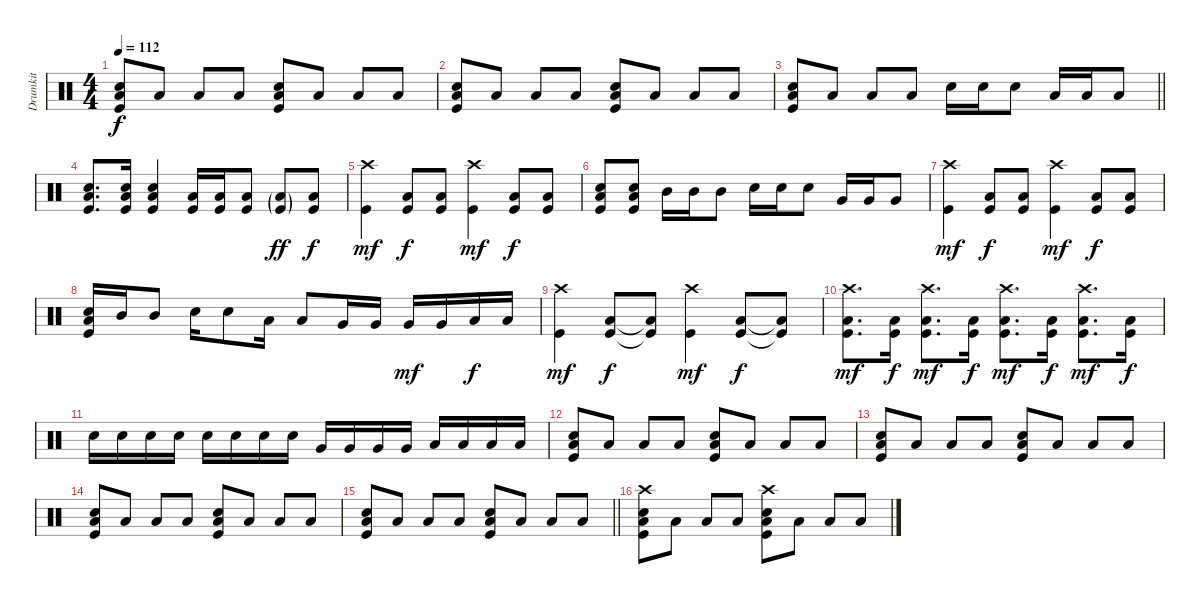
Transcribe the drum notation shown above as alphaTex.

\track ("Drumkit" "Drumkit") {instrument percussion}
\staff {score}
\articulation defaults
\ts (4 4)
\tempo 112
\clef neutral
\ks c
("Snare (hit) 2" "Low Floor Tom (hit)" "Kick (hit)").8{dy f} "Low Floor Tom (hit)".8 "Low Floor Tom (hit)".8 "Low Floor Tom (hit)".8 ("Snare (hit) 2" "Low Floor Tom (hit)" "Kick (hit)").8 "Low Floor Tom (hit)".8 "Low Floor Tom (hit)".8 "Low Floor Tom (hit)".8 |
("Snare (hit) 2" "Low Floor Tom (hit)" "Kick (hit)").8 "Low Floor Tom (hit)".8 "Low Floor Tom (hit)".8 "Low Floor Tom (hit)".8 ("Snare (hit) 2" "Low Floor Tom (hit)" "Kick (hit)").8 "Low Floor Tom (hit)".8 "Low Floor Tom (hit)".8 "Low Floor Tom (hit)".8 |
\barLineRight lightlight
("Snare (hit) 2" "Low Floor Tom (hit)" "Kick (hit)").8 "Low Floor Tom (hit)".8 "Low Floor Tom (hit)".8 "Low Floor Tom (hit)".8 "Snare (hit) 2".16 "Snare (hit) 2".16 "Snare (hit) 2".8 "Low Tom (hit)".16 "Low Tom (hit)".16 "Low Tom (hit)".8 |
("Snare (hit) 2" "Low Floor Tom (hit)" "Kick (hit)").8{d} ("Snare (hit) 2" "Low Floor Tom (hit)" "Kick (hit)").16 ("Snare (hit) 2" "Low Floor Tom (hit)" "Kick (hit)").4 ("Low Floor Tom (hit)" "Kick (hit)").16 ("Low Floor Tom (hit)" "Kick (hit)").16 ("Low Floor Tom (hit)" "Kick (hit)").8 ("Low Floor Tom (hit)"{g} "Kick (hit)"{g}).8{dy ff} ("Low Floor Tom (hit)" "Kick (hit)").8{dy f} |
("Crash high (hit)" "Kick (hit)").4{dy mf} ("Low Floor Tom (hit)" "Kick (hit)").8{dy f} ("Low Floor Tom (hit)" "Kick (hit)").8 ("Crash high (hit)" "Kick (hit)").4{dy mf} ("Low Floor Tom (hit)" "Kick (hit)").8{dy f} ("Low Floor Tom (hit)" "Kick (hit)").8 |
("Low Floor Tom (hit)" "Snare (hit) 2" "Kick (hit)").8 ("Low Floor Tom (hit)" "Snare (hit) 2" "Kick (hit)").8 "Mid Tom (hit)".16 "Mid Tom (hit)".16 "Mid Tom (hit)".8 "Snare (hit) 2".16 "Snare (hit) 2".16 "Snare (hit) 2".8 "Very Low Tom (hit)".16 "Very Low Tom (hit)".16 "Very Low Tom (hit)".8 |
("Crash high (hit)" "Kick (hit)").4{dy mf} ("Low Floor Tom (hit)" "Kick (hit)").8{dy f} ("Low Floor Tom (hit)" "Kick (hit)").8 ("Crash high (hit)" "Kick (hit)").4{dy mf} ("Low Floor Tom (hit)" "Kick (hit)").8{dy f} ("Low Floor Tom (hit)" "Kick (hit)").8 |
("Snare (hit) 2" "Low Floor Tom (hit)" "Kick (hit)").16 "Mid Tom (hit)".16 "Mid Tom (hit)".8 "Snare (hit) 2".16 "Snare (hit) 2".8 "Low Tom (hit)".16 "Low Tom (hit)".8 "Very Low Tom (hit)".16 "Very Low Tom (hit)".16 "Very Low Tom (hit)".16{dy mf} "Very Low Tom (hit)".16 "Low Floor Tom (hit)".16{dy f} "Low Floor Tom (hit)".16 |
("Crash high (hit)" "Kick (hit)").4{dy mf} ("Low Floor Tom (hit)" "Kick (hit)").8{dy f} ("Low Floor Tom (hit)"{t} "Kick (hit)"{t}).8 ("Crash high (hit)" "Kick (hit)").4{dy mf} ("Low Floor Tom (hit)" "Kick (hit)").8{dy f} ("Low Floor Tom (hit)"{t} "Kick (hit)"{t}).8 |
("Crash high (hit)" "Low Floor Tom (hit)" "Kick (hit)").8{d dy mf} ("Low Floor Tom (hit)" "Kick (hit)").16{dy f} ("Crash high (hit)" "Low Floor Tom (hit)" "Kick (hit)").8{d dy mf} ("Low Floor Tom (hit)" "Kick (hit)").16{dy f} ("Crash high (hit)" "Low Floor Tom (hit)" "Kick (hit)").8{d dy mf} ("Low Floor Tom (hit)" "Kick (hit)").16{dy f} ("Crash high (hit)" "Low Floor Tom (hit)" "Kick (hit)").8{d dy mf} ("Low Floor Tom (hit)" "Kick (hit)").16{dy f} |
"Snare (hit) 2".16 "Snare (hit) 2".16 "Snare (hit) 2".16 "Snare (hit) 2".16 "Snare (hit) 2".16 "Snare (hit) 2".16 "Snare (hit) 2".16 "Snare (hit) 2".16 "Very Low Tom (hit)".16 "Very Low Tom (hit)".16 "Very Low Tom (hit)".16 "Very Low Tom (hit)".16 "Low Floor Tom (hit)".16 "Low Floor Tom (hit)".16 "Low Floor Tom (hit)".16 "Low Floor Tom (hit)".16 |
("Snare (hit) 2" "Low Floor Tom (hit)" "Kick (hit)").8 "Low Floor Tom (hit)".8 "Low Floor Tom (hit)".8 "Low Floor Tom (hit)".8 ("Snare (hit) 2" "Low Floor Tom (hit)" "Kick (hit)").8 "Low Floor Tom (hit)".8 "Low Floor Tom (hit)".8 "Low Floor Tom (hit)".8 |
("Snare (hit) 2" "Low Floor Tom (hit)" "Kick (hit)").8 "Low Floor Tom (hit)".8 "Low Floor Tom (hit)".8 "Low Floor Tom (hit)".8 ("Snare (hit) 2" "Low Floor Tom (hit)" "Kick (hit)").8 "Low Floor Tom (hit)".8 "Low Floor Tom (hit)".8 "Low Floor Tom (hit)".8 |
("Snare (hit) 2" "Low Floor Tom (hit)" "Kick (hit)").8 "Low Floor Tom (hit)".8 "Low Floor Tom (hit)".8 "Low Floor Tom (hit)".8 ("Snare (hit) 2" "Low Floor Tom (hit)" "Kick (hit)").8 "Low Floor Tom (hit)".8 "Low Floor Tom (hit)".8 "Low Floor Tom (hit)".8 |
\barLineRight lightlight
("Snare (hit) 2" "Low Floor Tom (hit)" "Kick (hit)").8 "Low Floor Tom (hit)".8 "Low Floor Tom (hit)".8 "Low Floor Tom (hit)".8 ("Snare (hit) 2" "Low Floor Tom (hit)" "Kick (hit)").8 "Low Floor Tom (hit)".8 "Low Floor Tom (hit)".8 "Low Floor Tom (hit)".8 |
("Snare (hit) 2" "Low Floor Tom (hit)" "Kick (hit)" "Crash high (hit)").8 "Low Floor Tom (hit)".8 "Low Floor Tom (hit)".8 "Low Floor Tom (hit)".8 ("Snare (hit) 2" "Low Floor Tom (hit)" "Kick (hit)" "Crash high (hit)").8 "Low Floor Tom (hit)".8 "Low Floor Tom (hit)".8 "Low Floor Tom (hit)".8
